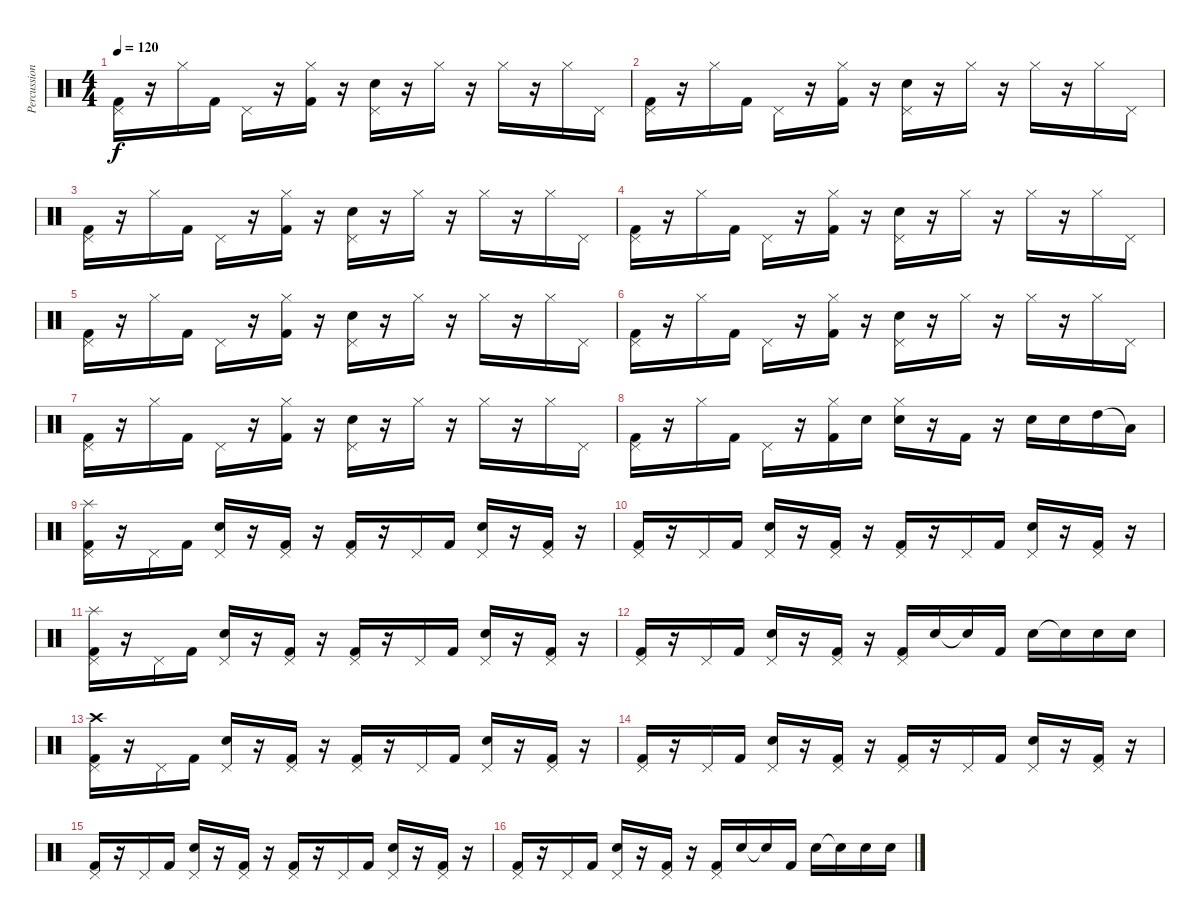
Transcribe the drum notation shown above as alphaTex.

\track ("Percussion" "Percussion") {instrument percussion}
\staff {score}
\articulation defaults
\ts (4 4)
\tempo 120
\clef neutral
\ks c
("Pedal Hi-Hat (hit)" "Kick (hit) 2").16{dy f} r.16 "Hi-Hat (closed)".16 "Kick (hit) 2".16 "Pedal Hi-Hat (hit)".16 r.16 ("Hi-Hat (closed)" "Kick (hit) 2").16 r.16 ("Pedal Hi-Hat (hit)" "Electric Snare (hit)").16 r.16 "Hi-Hat (closed)".16 r.16 "Hi-Hat (closed)".16 r.16 "Hi-Hat (closed)".16 "Pedal Hi-Hat (hit)".16 |
("Pedal Hi-Hat (hit)" "Kick (hit) 2").16 r.16 "Hi-Hat (closed)".16 "Kick (hit) 2".16 "Pedal Hi-Hat (hit)".16 r.16 ("Hi-Hat (closed)" "Kick (hit) 2").16 r.16 ("Pedal Hi-Hat (hit)" "Electric Snare (hit)").16 r.16 "Hi-Hat (closed)".16 r.16 "Hi-Hat (closed)".16 r.16 "Hi-Hat (closed)".16 "Pedal Hi-Hat (hit)".16 |
("Pedal Hi-Hat (hit)" "Kick (hit) 2").16 r.16 "Hi-Hat (closed)".16 "Kick (hit) 2".16 "Pedal Hi-Hat (hit)".16 r.16 ("Hi-Hat (closed)" "Kick (hit) 2").16 r.16 ("Pedal Hi-Hat (hit)" "Electric Snare (hit)").16 r.16 "Hi-Hat (closed)".16 r.16 "Hi-Hat (closed)".16 r.16 "Hi-Hat (closed)".16 "Pedal Hi-Hat (hit)".16 |
("Pedal Hi-Hat (hit)" "Kick (hit) 2").16 r.16 "Hi-Hat (closed)".16 "Kick (hit) 2".16 "Pedal Hi-Hat (hit)".16 r.16 ("Hi-Hat (closed)" "Kick (hit) 2").16 r.16 ("Pedal Hi-Hat (hit)" "Electric Snare (hit)").16 r.16 "Hi-Hat (closed)".16 r.16 "Hi-Hat (closed)".16 r.16 "Hi-Hat (closed)".16 "Pedal Hi-Hat (hit)".16 |
("Pedal Hi-Hat (hit)" "Kick (hit) 2").16 r.16 "Hi-Hat (closed)".16 "Kick (hit) 2".16 "Pedal Hi-Hat (hit)".16 r.16 ("Hi-Hat (closed)" "Kick (hit) 2").16 r.16 ("Pedal Hi-Hat (hit)" "Electric Snare (hit)").16 r.16 "Hi-Hat (closed)".16 r.16 "Hi-Hat (closed)".16 r.16 "Hi-Hat (closed)".16 "Pedal Hi-Hat (hit)".16 |
("Pedal Hi-Hat (hit)" "Kick (hit) 2").16 r.16 "Hi-Hat (closed)".16 "Kick (hit) 2".16 "Pedal Hi-Hat (hit)".16 r.16 ("Hi-Hat (closed)" "Kick (hit) 2").16 r.16 ("Pedal Hi-Hat (hit)" "Electric Snare (hit)").16 r.16 "Hi-Hat (closed)".16 r.16 "Hi-Hat (closed)".16 r.16 "Hi-Hat (closed)".16 "Pedal Hi-Hat (hit)".16 |
("Pedal Hi-Hat (hit)" "Kick (hit) 2").16 r.16 "Hi-Hat (closed)".16 "Kick (hit) 2".16 "Pedal Hi-Hat (hit)".16 r.16 ("Hi-Hat (closed)" "Kick (hit) 2").16 r.16 ("Pedal Hi-Hat (hit)" "Electric Snare (hit)").16 r.16 "Hi-Hat (closed)".16 r.16 "Hi-Hat (closed)".16 r.16 "Hi-Hat (closed)".16 "Pedal Hi-Hat (hit)".16 |
("Pedal Hi-Hat (hit)" "Kick (hit) 2").16 r.16 "Hi-Hat (closed)".16 "Kick (hit) 2".16 "Pedal Hi-Hat (hit)".16 r.16 ("Hi-Hat (closed)" "Kick (hit) 2").16 "Electric Snare (hit)".16 ("Hi-Hat (closed)" "Electric Snare (hit)").16 r.16 "Kick (hit) 2".16 r.16 "Electric Snare (hit)".16 "Electric Snare (hit)".16 "High Tom (hit)".16 "Low Tom (hit)"{t}.16 |
("Splash (hit)" "Kick (hit) 2" "Pedal Hi-Hat (hit)").16 r.16 "Pedal Hi-Hat (hit)".16 "Kick (hit) 2".16 ("Electric Snare (hit)" "Pedal Hi-Hat (hit)").16 r.16 ("Kick (hit) 2" "Pedal Hi-Hat (hit)").16 r.16 ("Kick (hit) 2" "Pedal Hi-Hat (hit)").16 r.16 "Pedal Hi-Hat (hit)".16 "Kick (hit) 2".16 ("Electric Snare (hit)" "Pedal Hi-Hat (hit)").16 r.16 ("Kick (hit) 2" "Pedal Hi-Hat (hit)").16 r.16 |
("Kick (hit) 2" "Pedal Hi-Hat (hit)").16 r.16 "Pedal Hi-Hat (hit)".16 "Kick (hit) 2".16 ("Electric Snare (hit)" "Pedal Hi-Hat (hit)").16 r.16 ("Kick (hit) 2" "Pedal Hi-Hat (hit)").16 r.16 ("Kick (hit) 2" "Pedal Hi-Hat (hit)").16 r.16 "Pedal Hi-Hat (hit)".16 "Kick (hit) 2".16 ("Electric Snare (hit)" "Pedal Hi-Hat (hit)").16 r.16 ("Kick (hit) 2" "Pedal Hi-Hat (hit)").16 r.16 |
("Splash (hit)" "Kick (hit) 2" "Pedal Hi-Hat (hit)").16 r.16 "Pedal Hi-Hat (hit)".16 "Kick (hit) 2".16 ("Electric Snare (hit)" "Pedal Hi-Hat (hit)").16 r.16 ("Kick (hit) 2" "Pedal Hi-Hat (hit)").16 r.16 ("Kick (hit) 2" "Pedal Hi-Hat (hit)").16 r.16 "Pedal Hi-Hat (hit)".16 "Kick (hit) 2".16 ("Electric Snare (hit)" "Pedal Hi-Hat (hit)").16 r.16 ("Kick (hit) 2" "Pedal Hi-Hat (hit)").16 r.16 |
("Kick (hit) 2" "Pedal Hi-Hat (hit)").16 r.16 "Pedal Hi-Hat (hit)".16 "Kick (hit) 2".16 ("Electric Snare (hit)" "Pedal Hi-Hat (hit)").16 r.16 ("Kick (hit) 2" "Pedal Hi-Hat (hit)").16 r.16 ("Kick (hit) 2" "Pedal Hi-Hat (hit)").16 "Electric Snare (hit)".16 "Snare (hit)"{t}.16 "Kick (hit) 2".16 "Electric Snare (hit)".16 "Electric Snare (hit)"{t}.16 "Electric Snare (hit)".16 "Electric Snare (hit)".16 |
("Crash high (hit)" "Kick (hit) 2" "Pedal Hi-Hat (hit)").16 r.16 "Pedal Hi-Hat (hit)".16 "Kick (hit) 2".16 ("Electric Snare (hit)" "Pedal Hi-Hat (hit)").16 r.16 ("Kick (hit) 2" "Pedal Hi-Hat (hit)").16 r.16 ("Kick (hit) 2" "Pedal Hi-Hat (hit)").16 r.16 "Pedal Hi-Hat (hit)".16 "Kick (hit) 2".16 ("Electric Snare (hit)" "Pedal Hi-Hat (hit)").16 r.16 ("Kick (hit) 2" "Pedal Hi-Hat (hit)").16 r.16 |
("Kick (hit) 2" "Pedal Hi-Hat (hit)").16 r.16 "Pedal Hi-Hat (hit)".16 "Kick (hit) 2".16 ("Electric Snare (hit)" "Pedal Hi-Hat (hit)").16 r.16 ("Kick (hit) 2" "Pedal Hi-Hat (hit)").16 r.16 ("Kick (hit) 2" "Pedal Hi-Hat (hit)").16 r.16 "Pedal Hi-Hat (hit)".16 "Kick (hit) 2".16 ("Electric Snare (hit)" "Pedal Hi-Hat (hit)").16 r.16 ("Kick (hit) 2" "Pedal Hi-Hat (hit)").16 r.16 |
("Kick (hit) 2" "Pedal Hi-Hat (hit)").16 r.16 "Pedal Hi-Hat (hit)".16 "Kick (hit) 2".16 ("Electric Snare (hit)" "Pedal Hi-Hat (hit)").16 r.16 ("Kick (hit) 2" "Pedal Hi-Hat (hit)").16 r.16 ("Kick (hit) 2" "Pedal Hi-Hat (hit)").16 r.16 "Pedal Hi-Hat (hit)".16 "Kick (hit) 2".16 ("Electric Snare (hit)" "Pedal Hi-Hat (hit)").16 r.16 ("Kick (hit) 2" "Pedal Hi-Hat (hit)").16 r.16 |
("Kick (hit) 2" "Pedal Hi-Hat (hit)").16 r.16 "Pedal Hi-Hat (hit)".16 "Kick (hit) 2".16 ("Electric Snare (hit)" "Pedal Hi-Hat (hit)").16 r.16 ("Kick (hit) 2" "Pedal Hi-Hat (hit)").16 r.16 ("Kick (hit) 2" "Pedal Hi-Hat (hit)").16 "Electric Snare (hit)".16 "Snare (hit)"{t}.16 "Kick (hit) 2".16 "Electric Snare (hit)".16 "Electric Snare (hit)"{t}.16 "Electric Snare (hit)".16 "Electric Snare (hit)".16
